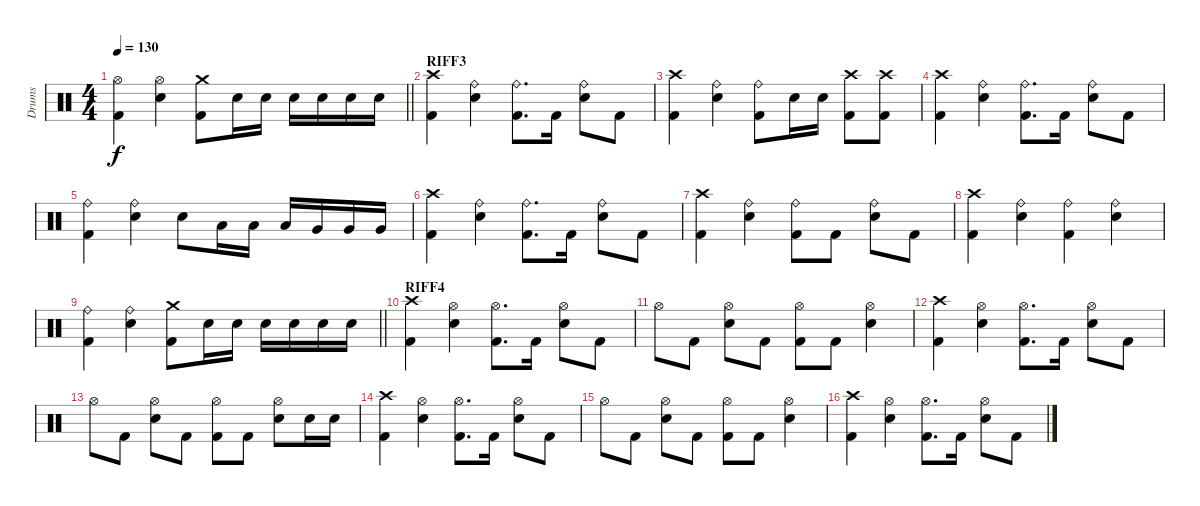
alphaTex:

\track ("Drums" "Drums") {instrument percussion}
\staff {score}
\articulation defaults
\ts (4 4)
\tempo 130
\clef neutral
\barLineRight lightlight
\ks c
("Hi-Hat (open)" "Kick (hit) 2").4{dy f} ("Hi-Hat (open)" "Electric Snare (hit)").4 ("Crash medium (hit)" "Kick (hit) 2").8 "Electric Snare (hit)".16 "Electric Snare (hit)".16 "Electric Snare (hit)".16 "Electric Snare (hit)".16 "Electric Snare (hit)".16 "Electric Snare (hit)".16 |
\section ("" "RIFF3")
("Crash high (hit)" "Kick (hit) 2").4 ("Ride (bell)" "Electric Snare (hit)").4 ("Ride (bell)" "Kick (hit) 2").8{d} "Kick (hit) 2".16 ("Ride (bell)" "Electric Snare (hit)").8 "Kick (hit) 2".8 |
("Crash high (hit)" "Kick (hit) 2").4 ("Ride (bell)" "Electric Snare (hit)").4 ("Ride (bell)" "Kick (hit) 2").8 "Electric Snare (hit)".16 "Electric Snare (hit)".16 ("Crash high (hit)" "Kick (hit) 2").8 ("Crash high (hit)" "Kick (hit) 2").8 |
("Crash high (hit)" "Kick (hit) 2").4 ("Ride (bell)" "Electric Snare (hit)").4 ("Ride (bell)" "Kick (hit) 2").8{d} "Kick (hit) 2".16 ("Ride (bell)" "Electric Snare (hit)").8 "Kick (hit) 2".8 |
("Ride (bell)" "Kick (hit) 2").4 ("Ride (bell)" "Electric Snare (hit)").4 "Electric Snare (hit)".8 "Low Tom (hit)".16 "Low Tom (hit)".16 "Low Tom (hit)".16 "Very Low Tom (hit)".16 "Very Low Tom (hit)".16 "Very Low Tom (hit)".16 |
("Crash high (hit)" "Kick (hit) 2").4 ("Ride (bell)" "Electric Snare (hit)").4 ("Ride (bell)" "Kick (hit) 2").8{d} "Kick (hit) 2".16 ("Ride (bell)" "Electric Snare (hit)").8 "Kick (hit) 2".8 |
("Crash high (hit)" "Kick (hit) 2").4 ("Ride (bell)" "Electric Snare (hit)").4 ("Ride (bell)" "Kick (hit) 2").8 "Kick (hit) 2".8 ("Ride (bell)" "Electric Snare (hit)").8 "Kick (hit) 2".8 |
("Crash high (hit)" "Kick (hit) 2").4 ("Ride (bell)" "Electric Snare (hit)").4 ("Ride (bell)" "Kick (hit) 2").4 ("Ride (bell)" "Electric Snare (hit)").4 |
\barLineRight lightlight
("Ride (bell)" "Kick (hit) 2").4 ("Ride (bell)" "Electric Snare (hit)").4 ("Crash medium (hit)" "Kick (hit) 2").8 "Electric Snare (hit)".16 "Electric Snare (hit)".16 "Electric Snare (hit)".16 "Electric Snare (hit)".16 "Electric Snare (hit)".16 "Electric Snare (hit)".16 |
\section ("" "RIFF4")
("Crash high (hit)" "Kick (hit) 2").4 ("Hi-Hat (open)" "Electric Snare (hit)").4 ("Hi-Hat (open)" "Kick (hit) 2").8{d} "Kick (hit) 2".16 ("Hi-Hat (open)" "Electric Snare (hit)").8 "Kick (hit) 2".8 |
"Hi-Hat (open)".8 "Kick (hit) 2".8 ("Hi-Hat (open)" "Electric Snare (hit)").8 "Kick (hit) 2".8 ("Hi-Hat (open)" "Kick (hit) 2").8 "Kick (hit) 2".8 ("Hi-Hat (open)" "Electric Snare (hit)").4 |
("Crash high (hit)" "Kick (hit) 2").4 ("Hi-Hat (open)" "Electric Snare (hit)").4 ("Hi-Hat (open)" "Kick (hit) 2").8{d} "Kick (hit) 2".16 ("Hi-Hat (open)" "Electric Snare (hit)").8 "Kick (hit) 2".8 |
"Hi-Hat (open)".8 "Kick (hit) 2".8 ("Hi-Hat (open)" "Electric Snare (hit)").8 "Kick (hit) 2".8 ("Hi-Hat (open)" "Kick (hit) 2").8 "Kick (hit) 2".8 ("Hi-Hat (open)" "Electric Snare (hit)").8 "Electric Snare (hit)".16 "Electric Snare (hit)".16 |
("Crash high (hit)" "Kick (hit) 2").4 ("Hi-Hat (open)" "Electric Snare (hit)").4 ("Hi-Hat (open)" "Kick (hit) 2").8{d} "Kick (hit) 2".16 ("Hi-Hat (open)" "Electric Snare (hit)").8 "Kick (hit) 2".8 |
"Hi-Hat (open)".8 "Kick (hit) 2".8 ("Hi-Hat (open)" "Electric Snare (hit)").8 "Kick (hit) 2".8 ("Hi-Hat (open)" "Kick (hit) 2").8 "Kick (hit) 2".8 ("Hi-Hat (open)" "Electric Snare (hit)").4 |
("Crash high (hit)" "Kick (hit) 2").4 ("Hi-Hat (open)" "Electric Snare (hit)").4 ("Hi-Hat (open)" "Kick (hit) 2").8{d} "Kick (hit) 2".16 ("Hi-Hat (open)" "Electric Snare (hit)").8 "Kick (hit) 2".8
